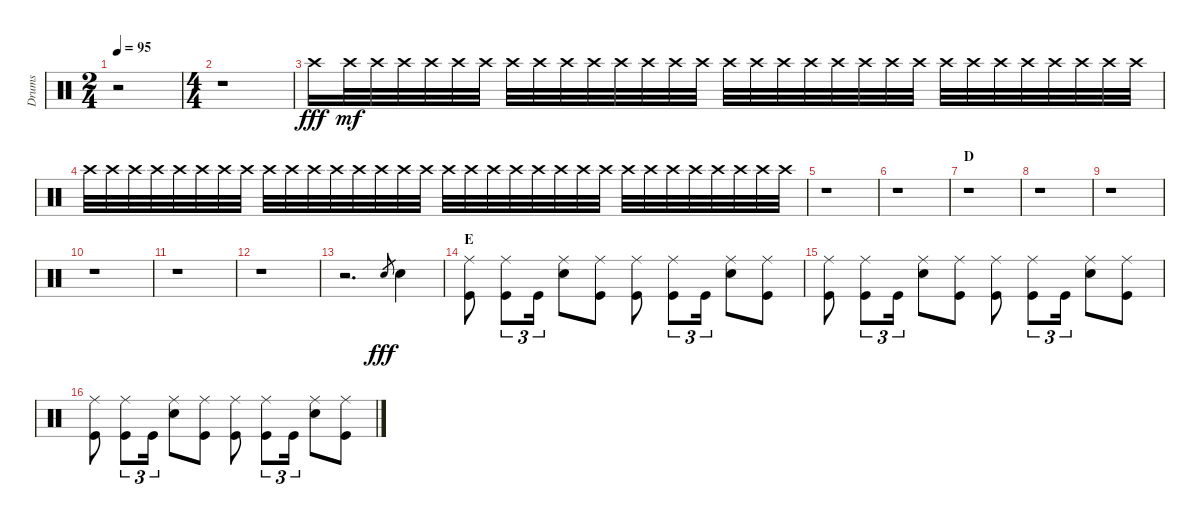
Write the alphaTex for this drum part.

\track ("Drums" "Drums") {instrument percussion}
\staff {score}
\articulation defaults
\ts (2 4)
\tempo 95
\clef neutral
\ks c
r.2{dy fff} |
\ts (4 4)
r.1 |
"Crash high (hit)".16 "Crash high (hit)".32{dy mf} "Crash high (hit)".32 "Crash high (hit)".32 "Crash high (hit)".32 "Crash high (hit)".32 "Crash high (hit)".32 "Crash high (hit)".32 "Crash high (hit)".32 "Crash high (hit)".32 "Crash high (hit)".32 "Crash high (hit)".32 "Crash high (hit)".32 "Crash high (hit)".32 "Crash high (hit)".32 "Crash high (hit)".32 "Crash high (hit)".32 "Crash high (hit)".32 "Crash high (hit)".32 "Crash high (hit)".32 "Crash high (hit)".32 "Crash high (hit)".32 "Crash high (hit)".32 "Crash high (hit)".32 "Crash high (hit)".32 "Crash high (hit)".32 "Crash high (hit)".32 "Crash high (hit)".32 "Crash high (hit)".32 "Crash high (hit)".32 "Crash high (hit)".32 |
"Crash high (hit)".32 "Crash high (hit)".32 "Crash high (hit)".32 "Crash high (hit)".32 "Crash high (hit)".32 "Crash high (hit)".32 "Crash high (hit)".32 "Crash high (hit)".32 "Crash high (hit)".32 "Crash high (hit)".32 "Crash high (hit)".32 "Crash high (hit)".32 "Crash high (hit)".32 "Crash high (hit)".32 "Crash high (hit)".32 "Crash high (hit)".32 "Crash high (hit)".32 "Crash high (hit)".32 "Crash high (hit)".32 "Crash high (hit)".32 "Crash high (hit)".32 "Crash high (hit)".32 "Crash high (hit)".32 "Crash high (hit)".32 "Crash high (hit)".32 "Crash high (hit)".32 "Crash high (hit)".32 "Crash high (hit)".32 "Crash high (hit)".32 "Crash high (hit)".32 "Crash high (hit)".32 "Crash high (hit)".32 |
r.1 |
r.1 |
\section ("" "D")
r.1 |
r.1 |
r.1 |
r.1 |
r.1 |
r.1 |
r.2{d} "Snare (hit) 2".8{gr dy fff} "Snare (hit) 2".4 |
\section ("" "E")
("Ride (middle)" "Kick (hit)").8 ("Ride (middle)" "Kick (hit)").8{tu (3 2)} "Kick (hit)".16{tu (3 2)} ("Ride (middle)" "Snare (hit) 2").8 ("Ride (middle)" "Kick (hit)").8 ("Ride (middle)" "Kick (hit)").8 ("Ride (middle)" "Kick (hit)").8{tu (3 2)} "Kick (hit)".16{tu (3 2)} ("Ride (middle)" "Snare (hit) 2").8 ("Ride (middle)" "Kick (hit)").8 |
("Ride (middle)" "Kick (hit)").8 ("Ride (middle)" "Kick (hit)").8{tu (3 2)} "Kick (hit)".16{tu (3 2)} ("Ride (middle)" "Snare (hit) 2").8 ("Ride (middle)" "Kick (hit)").8 ("Ride (middle)" "Kick (hit)").8 ("Ride (middle)" "Kick (hit)").8{tu (3 2)} "Kick (hit)".16{tu (3 2)} ("Ride (middle)" "Snare (hit) 2").8 ("Ride (middle)" "Kick (hit)").8 |
("Ride (middle)" "Kick (hit)").8 ("Ride (middle)" "Kick (hit)").8{tu (3 2)} "Kick (hit)".16{tu (3 2)} ("Ride (middle)" "Snare (hit) 2").8 ("Ride (middle)" "Kick (hit)").8 ("Ride (middle)" "Kick (hit)").8 ("Ride (middle)" "Kick (hit)").8{tu (3 2)} "Kick (hit)".16{tu (3 2)} ("Ride (middle)" "Snare (hit) 2").8 ("Ride (middle)" "Kick (hit)").8
